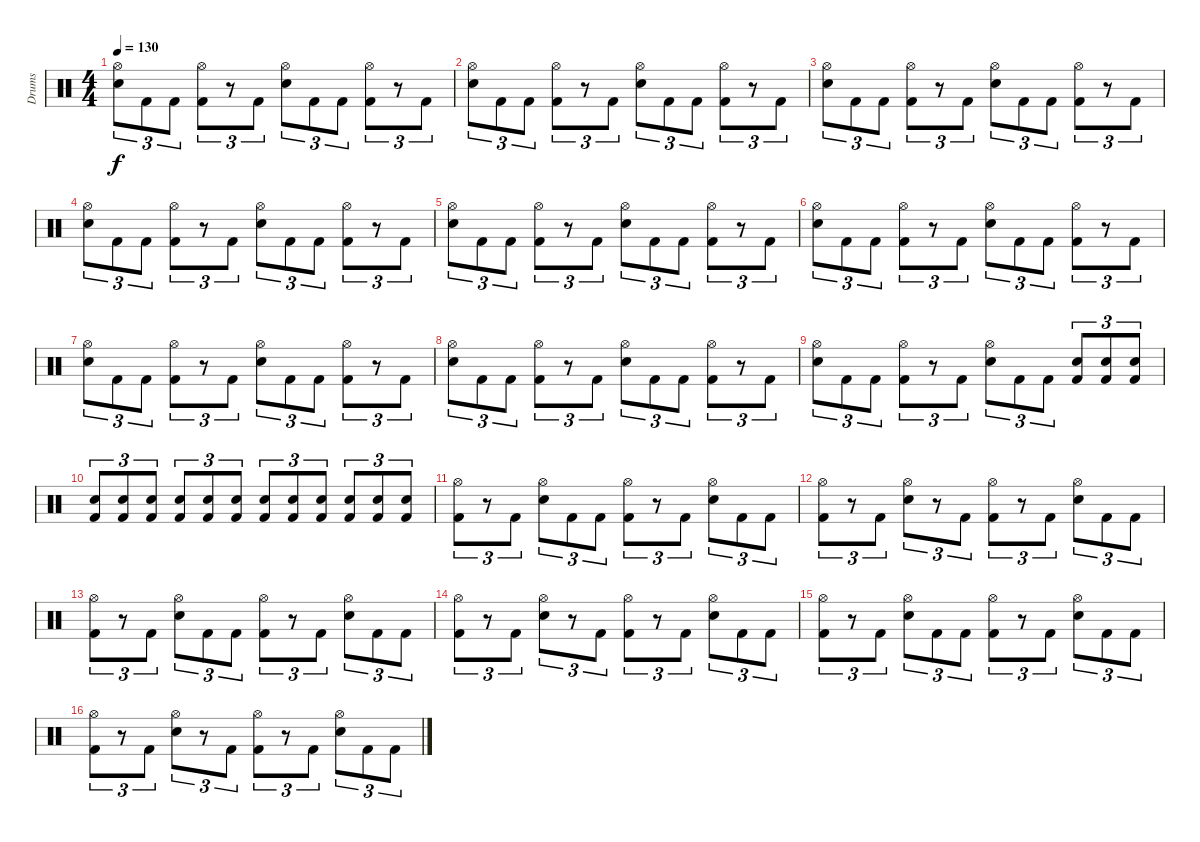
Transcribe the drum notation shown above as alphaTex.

\track ("Drums" "Drums") {instrument percussion}
\staff {score}
\articulation defaults
\ts (4 4)
\tempo 130
\clef neutral
\ks c
("Hi-Hat (open)" "Snare (hit) 2").8{tu (3 2) dy f} "Kick (hit) 2".8{tu (3 2)} "Kick (hit) 2".8{tu (3 2)} ("Hi-Hat (open)" "Kick (hit) 2").8{tu (3 2)} r.8{tu (3 2)} "Kick (hit) 2".8{tu (3 2)} ("Hi-Hat (open)" "Snare (hit) 2").8{tu (3 2)} "Kick (hit) 2".8{tu (3 2)} "Kick (hit) 2".8{tu (3 2)} ("Hi-Hat (open)" "Kick (hit) 2").8{tu (3 2)} r.8{tu (3 2)} "Kick (hit) 2".8{tu (3 2)} |
("Hi-Hat (open)" "Snare (hit) 2").8{tu (3 2)} "Kick (hit) 2".8{tu (3 2)} "Kick (hit) 2".8{tu (3 2)} ("Hi-Hat (open)" "Kick (hit) 2").8{tu (3 2)} r.8{tu (3 2)} "Kick (hit) 2".8{tu (3 2)} ("Hi-Hat (open)" "Snare (hit) 2").8{tu (3 2)} "Kick (hit) 2".8{tu (3 2)} "Kick (hit) 2".8{tu (3 2)} ("Hi-Hat (open)" "Kick (hit) 2").8{tu (3 2)} r.8{tu (3 2)} "Kick (hit) 2".8{tu (3 2)} |
("Hi-Hat (open)" "Snare (hit) 2").8{tu (3 2)} "Kick (hit) 2".8{tu (3 2)} "Kick (hit) 2".8{tu (3 2)} ("Hi-Hat (open)" "Kick (hit) 2").8{tu (3 2)} r.8{tu (3 2)} "Kick (hit) 2".8{tu (3 2)} ("Hi-Hat (open)" "Snare (hit) 2").8{tu (3 2)} "Kick (hit) 2".8{tu (3 2)} "Kick (hit) 2".8{tu (3 2)} ("Hi-Hat (open)" "Kick (hit) 2").8{tu (3 2)} r.8{tu (3 2)} "Kick (hit) 2".8{tu (3 2)} |
("Hi-Hat (open)" "Snare (hit) 2").8{tu (3 2)} "Kick (hit) 2".8{tu (3 2)} "Kick (hit) 2".8{tu (3 2)} ("Hi-Hat (open)" "Kick (hit) 2").8{tu (3 2)} r.8{tu (3 2)} "Kick (hit) 2".8{tu (3 2)} ("Hi-Hat (open)" "Snare (hit) 2").8{tu (3 2)} "Kick (hit) 2".8{tu (3 2)} "Kick (hit) 2".8{tu (3 2)} ("Hi-Hat (open)" "Kick (hit) 2").8{tu (3 2)} r.8{tu (3 2)} "Kick (hit) 2".8{tu (3 2)} |
("Hi-Hat (open)" "Snare (hit) 2").8{tu (3 2)} "Kick (hit) 2".8{tu (3 2)} "Kick (hit) 2".8{tu (3 2)} ("Hi-Hat (open)" "Kick (hit) 2").8{tu (3 2)} r.8{tu (3 2)} "Kick (hit) 2".8{tu (3 2)} ("Hi-Hat (open)" "Snare (hit) 2").8{tu (3 2)} "Kick (hit) 2".8{tu (3 2)} "Kick (hit) 2".8{tu (3 2)} ("Hi-Hat (open)" "Kick (hit) 2").8{tu (3 2)} r.8{tu (3 2)} "Kick (hit) 2".8{tu (3 2)} |
("Hi-Hat (open)" "Snare (hit) 2").8{tu (3 2)} "Kick (hit) 2".8{tu (3 2)} "Kick (hit) 2".8{tu (3 2)} ("Hi-Hat (open)" "Kick (hit) 2").8{tu (3 2)} r.8{tu (3 2)} "Kick (hit) 2".8{tu (3 2)} ("Hi-Hat (open)" "Snare (hit) 2").8{tu (3 2)} "Kick (hit) 2".8{tu (3 2)} "Kick (hit) 2".8{tu (3 2)} ("Hi-Hat (open)" "Kick (hit) 2").8{tu (3 2)} r.8{tu (3 2)} "Kick (hit) 2".8{tu (3 2)} |
("Hi-Hat (open)" "Snare (hit) 2").8{tu (3 2)} "Kick (hit) 2".8{tu (3 2)} "Kick (hit) 2".8{tu (3 2)} ("Hi-Hat (open)" "Kick (hit) 2").8{tu (3 2)} r.8{tu (3 2)} "Kick (hit) 2".8{tu (3 2)} ("Hi-Hat (open)" "Snare (hit) 2").8{tu (3 2)} "Kick (hit) 2".8{tu (3 2)} "Kick (hit) 2".8{tu (3 2)} ("Hi-Hat (open)" "Kick (hit) 2").8{tu (3 2)} r.8{tu (3 2)} "Kick (hit) 2".8{tu (3 2)} |
("Hi-Hat (open)" "Snare (hit) 2").8{tu (3 2)} "Kick (hit) 2".8{tu (3 2)} "Kick (hit) 2".8{tu (3 2)} ("Hi-Hat (open)" "Kick (hit) 2").8{tu (3 2)} r.8{tu (3 2)} "Kick (hit) 2".8{tu (3 2)} ("Hi-Hat (open)" "Snare (hit) 2").8{tu (3 2)} "Kick (hit) 2".8{tu (3 2)} "Kick (hit) 2".8{tu (3 2)} ("Hi-Hat (open)" "Kick (hit) 2").8{tu (3 2)} r.8{tu (3 2)} "Kick (hit) 2".8{tu (3 2)} |
("Hi-Hat (open)" "Snare (hit) 2").8{tu (3 2)} "Kick (hit) 2".8{tu (3 2)} "Kick (hit) 2".8{tu (3 2)} ("Hi-Hat (open)" "Kick (hit) 2").8{tu (3 2)} r.8{tu (3 2)} "Kick (hit) 2".8{tu (3 2)} ("Hi-Hat (open)" "Snare (hit) 2").8{tu (3 2)} "Kick (hit) 2".8{tu (3 2)} "Kick (hit) 2".8{tu (3 2)} ("Snare (hit) 2" "Kick (hit) 2").8{tu (3 2)} ("Snare (hit) 2" "Kick (hit) 2").8{tu (3 2)} ("Snare (hit) 2" "Kick (hit) 2").8{tu (3 2)} |
("Snare (hit) 2" "Kick (hit) 2").8{tu (3 2)} ("Snare (hit) 2" "Kick (hit) 2").8{tu (3 2)} ("Snare (hit) 2" "Kick (hit) 2").8{tu (3 2)} ("Snare (hit) 2" "Kick (hit) 2").8{tu (3 2)} ("Snare (hit) 2" "Kick (hit) 2").8{tu (3 2)} ("Snare (hit) 2" "Kick (hit) 2").8{tu (3 2)} ("Snare (hit) 2" "Kick (hit) 2").8{tu (3 2)} ("Snare (hit) 2" "Kick (hit) 2").8{tu (3 2)} ("Snare (hit) 2" "Kick (hit) 2").8{tu (3 2)} ("Snare (hit) 2" "Kick (hit) 2").8{tu (3 2)} ("Snare (hit) 2" "Kick (hit) 2").8{tu (3 2)} ("Snare (hit) 2" "Kick (hit) 2").8{tu (3 2)} |
("Hi-Hat (open)" "Kick (hit) 2").8{tu (3 2)} r.8{tu (3 2)} "Kick (hit) 2".8{tu (3 2)} ("Hi-Hat (open)" "Snare (hit) 2").8{tu (3 2)} "Kick (hit) 2".8{tu (3 2)} "Kick (hit) 2".8{tu (3 2)} ("Hi-Hat (open)" "Kick (hit) 2").8{tu (3 2)} r.8{tu (3 2)} "Kick (hit) 2".8{tu (3 2)} ("Hi-Hat (open)" "Snare (hit) 2").8{tu (3 2)} "Kick (hit) 2".8{tu (3 2)} "Kick (hit) 2".8{tu (3 2)} |
("Hi-Hat (open)" "Kick (hit) 2").8{tu (3 2)} r.8{tu (3 2)} "Kick (hit) 2".8{tu (3 2)} ("Hi-Hat (open)" "Snare (hit) 2").8{tu (3 2)} r.8{tu (3 2)} "Kick (hit) 2".8{tu (3 2)} ("Hi-Hat (open)" "Kick (hit) 2").8{tu (3 2)} r.8{tu (3 2)} "Kick (hit) 2".8{tu (3 2)} ("Hi-Hat (open)" "Snare (hit) 2").8{tu (3 2)} "Kick (hit) 2".8{tu (3 2)} "Kick (hit) 2".8{tu (3 2)} |
("Hi-Hat (open)" "Kick (hit) 2").8{tu (3 2)} r.8{tu (3 2)} "Kick (hit) 2".8{tu (3 2)} ("Hi-Hat (open)" "Snare (hit) 2").8{tu (3 2)} "Kick (hit) 2".8{tu (3 2)} "Kick (hit) 2".8{tu (3 2)} ("Hi-Hat (open)" "Kick (hit) 2").8{tu (3 2)} r.8{tu (3 2)} "Kick (hit) 2".8{tu (3 2)} ("Hi-Hat (open)" "Snare (hit) 2").8{tu (3 2)} "Kick (hit) 2".8{tu (3 2)} "Kick (hit) 2".8{tu (3 2)} |
("Hi-Hat (open)" "Kick (hit) 2").8{tu (3 2)} r.8{tu (3 2)} "Kick (hit) 2".8{tu (3 2)} ("Hi-Hat (open)" "Snare (hit) 2").8{tu (3 2)} r.8{tu (3 2)} "Kick (hit) 2".8{tu (3 2)} ("Hi-Hat (open)" "Kick (hit) 2").8{tu (3 2)} r.8{tu (3 2)} "Kick (hit) 2".8{tu (3 2)} ("Hi-Hat (open)" "Snare (hit) 2").8{tu (3 2)} "Kick (hit) 2".8{tu (3 2)} "Kick (hit) 2".8{tu (3 2)} |
("Hi-Hat (open)" "Kick (hit) 2").8{tu (3 2)} r.8{tu (3 2)} "Kick (hit) 2".8{tu (3 2)} ("Hi-Hat (open)" "Snare (hit) 2").8{tu (3 2)} "Kick (hit) 2".8{tu (3 2)} "Kick (hit) 2".8{tu (3 2)} ("Hi-Hat (open)" "Kick (hit) 2").8{tu (3 2)} r.8{tu (3 2)} "Kick (hit) 2".8{tu (3 2)} ("Hi-Hat (open)" "Snare (hit) 2").8{tu (3 2)} "Kick (hit) 2".8{tu (3 2)} "Kick (hit) 2".8{tu (3 2)} |
("Hi-Hat (open)" "Kick (hit) 2").8{tu (3 2)} r.8{tu (3 2)} "Kick (hit) 2".8{tu (3 2)} ("Hi-Hat (open)" "Snare (hit) 2").8{tu (3 2)} r.8{tu (3 2)} "Kick (hit) 2".8{tu (3 2)} ("Hi-Hat (open)" "Kick (hit) 2").8{tu (3 2)} r.8{tu (3 2)} "Kick (hit) 2".8{tu (3 2)} ("Hi-Hat (open)" "Snare (hit) 2").8{tu (3 2)} "Kick (hit) 2".8{tu (3 2)} "Kick (hit) 2".8{tu (3 2)}
